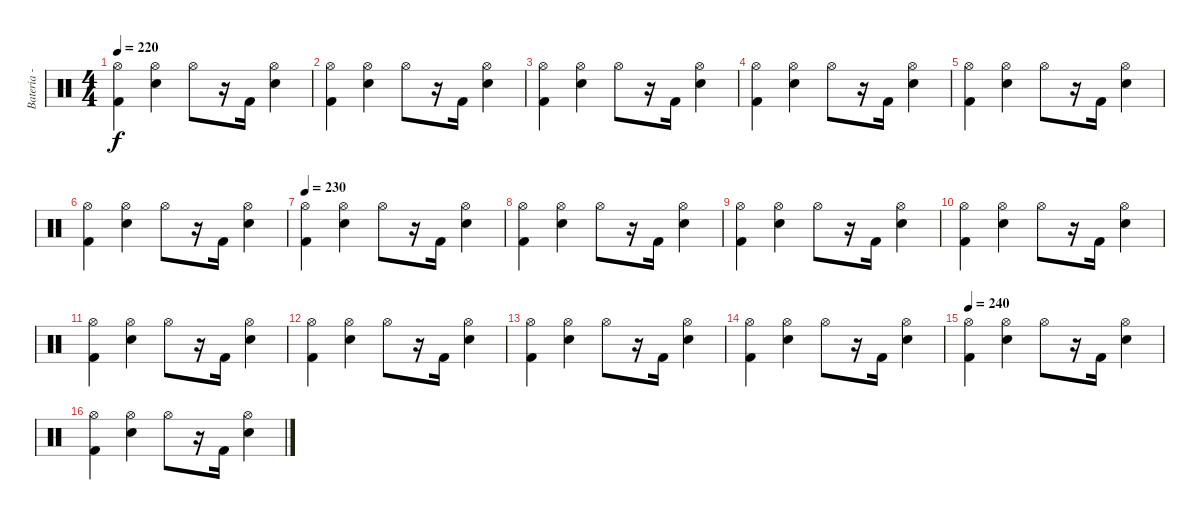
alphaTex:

\track ("Bateria - Larzon" "Bateria - ") {instrument percussion}
\staff {score}
\articulation defaults
\ts (4 4)
\tempo 220
\clef neutral
\ks c
("Kick (hit) 2" "Hi-Hat (open)").4{dy f} ("Electric Snare (hit)" "Hi-Hat (open)").4 "Hi-Hat (open)".8 r.16 "Kick (hit) 2".16 ("Electric Snare (hit)" "Hi-Hat (open)").4 |
("Kick (hit) 2" "Hi-Hat (open)").4 ("Electric Snare (hit)" "Hi-Hat (open)").4 "Hi-Hat (open)".8 r.16 "Kick (hit) 2".16 ("Electric Snare (hit)" "Hi-Hat (open)").4 |
("Kick (hit) 2" "Hi-Hat (open)").4 ("Electric Snare (hit)" "Hi-Hat (open)").4 "Hi-Hat (open)".8 r.16 "Kick (hit) 2".16 ("Electric Snare (hit)" "Hi-Hat (open)").4 |
("Kick (hit) 2" "Hi-Hat (open)").4 ("Electric Snare (hit)" "Hi-Hat (open)").4 "Hi-Hat (open)".8 r.16 "Kick (hit) 2".16 ("Electric Snare (hit)" "Hi-Hat (open)").4 |
("Kick (hit) 2" "Hi-Hat (open)").4 ("Electric Snare (hit)" "Hi-Hat (open)").4 "Hi-Hat (open)".8 r.16 "Kick (hit) 2".16 ("Electric Snare (hit)" "Hi-Hat (open)").4 |
("Kick (hit) 2" "Hi-Hat (open)").4 ("Electric Snare (hit)" "Hi-Hat (open)").4 "Hi-Hat (open)".8 r.16 "Kick (hit) 2".16 ("Electric Snare (hit)" "Hi-Hat (open)").4 |
\tempo 230
("Kick (hit) 2" "Hi-Hat (open)").4{volume 10} ("Electric Snare (hit)" "Hi-Hat (open)").4 "Hi-Hat (open)".8 r.16 "Kick (hit) 2".16 ("Electric Snare (hit)" "Hi-Hat (open)").4 |
("Kick (hit) 2" "Hi-Hat (open)").4 ("Electric Snare (hit)" "Hi-Hat (open)").4 "Hi-Hat (open)".8 r.16 "Kick (hit) 2".16 ("Electric Snare (hit)" "Hi-Hat (open)").4 |
("Kick (hit) 2" "Hi-Hat (open)").4 ("Electric Snare (hit)" "Hi-Hat (open)").4 "Hi-Hat (open)".8 r.16 "Kick (hit) 2".16 ("Electric Snare (hit)" "Hi-Hat (open)").4 |
("Kick (hit) 2" "Hi-Hat (open)").4 ("Electric Snare (hit)" "Hi-Hat (open)").4 "Hi-Hat (open)".8 r.16 "Kick (hit) 2".16 ("Electric Snare (hit)" "Hi-Hat (open)").4 |
("Kick (hit) 2" "Hi-Hat (open)").4 ("Electric Snare (hit)" "Hi-Hat (open)").4 "Hi-Hat (open)".8 r.16 "Kick (hit) 2".16 ("Electric Snare (hit)" "Hi-Hat (open)").4 |
("Kick (hit) 2" "Hi-Hat (open)").4 ("Electric Snare (hit)" "Hi-Hat (open)").4 "Hi-Hat (open)".8 r.16 "Kick (hit) 2".16 ("Electric Snare (hit)" "Hi-Hat (open)").4 |
("Kick (hit) 2" "Hi-Hat (open)").4 ("Electric Snare (hit)" "Hi-Hat (open)").4 "Hi-Hat (open)".8 r.16 "Kick (hit) 2".16 ("Electric Snare (hit)" "Hi-Hat (open)").4 |
("Kick (hit) 2" "Hi-Hat (open)").4 ("Electric Snare (hit)" "Hi-Hat (open)").4 "Hi-Hat (open)".8 r.16 "Kick (hit) 2".16 ("Electric Snare (hit)" "Hi-Hat (open)").4 |
\tempo 240
("Kick (hit) 2" "Hi-Hat (open)").4{volume 8} ("Electric Snare (hit)" "Hi-Hat (open)").4 "Hi-Hat (open)".8 r.16 "Kick (hit) 2".16 ("Electric Snare (hit)" "Hi-Hat (open)").4 |
("Kick (hit) 2" "Hi-Hat (open)").4 ("Electric Snare (hit)" "Hi-Hat (open)").4 "Hi-Hat (open)".8 r.16 "Kick (hit) 2".16 ("Electric Snare (hit)" "Hi-Hat (open)").4
